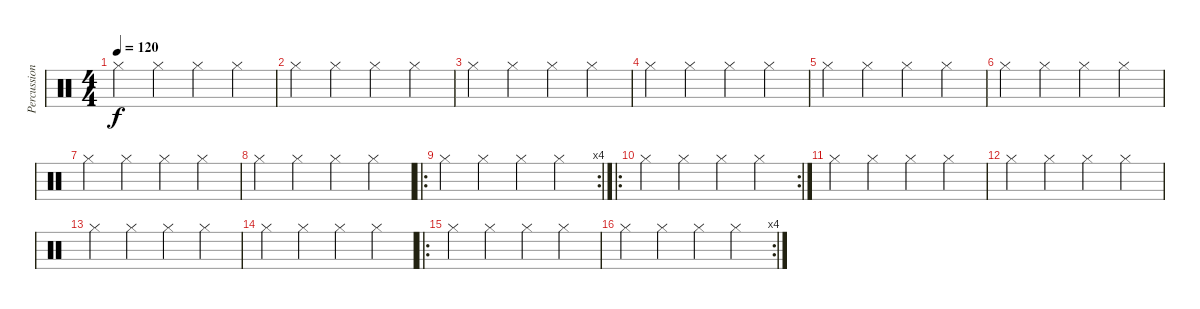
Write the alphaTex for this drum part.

\track ("Percussioni" "Percussion") {instrument percussion}
\staff {score}
\articulation defaults
\ts (4 4)
\tempo 120
\clef neutral
\ks c "Hi-Hat (closed)".4{dy f} "Hi-Hat (closed)".4 "Hi-Hat (closed)".4 "Hi-Hat (closed)".4
|
"Hi-Hat (closed)".4 "Hi-Hat (closed)".4 "Hi-Hat (closed)".4 "Hi-Hat (closed)".4 |
"Hi-Hat (closed)".4 "Hi-Hat (closed)".4 "Hi-Hat (closed)".4 "Hi-Hat (closed)".4 |
"Hi-Hat (closed)".4 "Hi-Hat (closed)".4 "Hi-Hat (closed)".4 "Hi-Hat (closed)".4 |
"Hi-Hat (closed)".4 "Hi-Hat (closed)".4 "Hi-Hat (closed)".4 "Hi-Hat (closed)".4 |
"Hi-Hat (closed)".4 "Hi-Hat (closed)".4 "Hi-Hat (closed)".4 "Hi-Hat (closed)".4 |
"Hi-Hat (closed)".4 "Hi-Hat (closed)".4 "Hi-Hat (closed)".4 "Hi-Hat (closed)".4 |
"Hi-Hat (closed)".4 "Hi-Hat (closed)".4 "Hi-Hat (closed)".4 "Hi-Hat (closed)".4 |
\ro
\rc 4 "Hi-Hat (closed)".4 "Hi-Hat (closed)".4 "Hi-Hat (closed)".4 "Hi-Hat (closed)".4
|
\ro
\rc 2 "Hi-Hat (closed)".4 "Hi-Hat (closed)".4 "Hi-Hat (closed)".4 "Hi-Hat (closed)".4
|
"Hi-Hat (closed)".4 "Hi-Hat (closed)".4 "Hi-Hat (closed)".4 "Hi-Hat (closed)".4 |
"Hi-Hat (closed)".4 "Hi-Hat (closed)".4 "Hi-Hat (closed)".4 "Hi-Hat (closed)".4 |
"Hi-Hat (closed)".4 "Hi-Hat (closed)".4 "Hi-Hat (closed)".4 "Hi-Hat (closed)".4 |
"Hi-Hat (closed)".4 "Hi-Hat (closed)".4 "Hi-Hat (closed)".4 "Hi-Hat (closed)".4 |
\ro "Hi-Hat (closed)".4 "Hi-Hat (closed)".4 "Hi-Hat (closed)".4 "Hi-Hat (closed)".4
|
\rc 4 "Hi-Hat (closed)".4 "Hi-Hat (closed)".4 "Hi-Hat (closed)".4 "Hi-Hat (closed)".4
